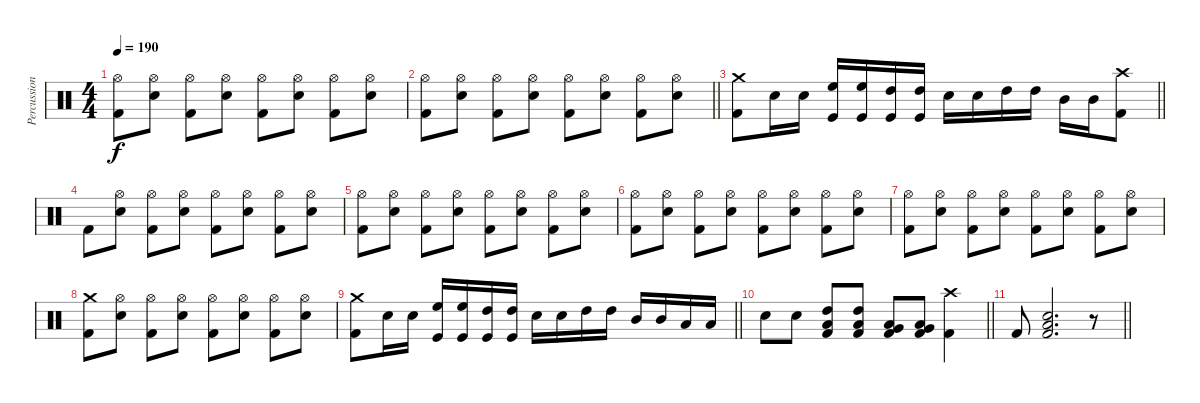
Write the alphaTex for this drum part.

\track ("Percussions" "Percussion") {instrument percussion}
\staff {score}
\articulation defaults
\ts (4 4)
\tempo 190
\clef neutral
\ks c
("Hi-Hat (open)" "Kick (hit) 2").8{dy f} ("Hi-Hat (open)" "Electric Snare (hit)").8 ("Hi-Hat (open)" "Kick (hit) 2").8 ("Hi-Hat (open)" "Electric Snare (hit)").8 ("Hi-Hat (open)" "Kick (hit) 2").8 ("Hi-Hat (open)" "Electric Snare (hit)").8 ("Hi-Hat (open)" "Kick (hit) 2").8 ("Hi-Hat (open)" "Electric Snare (hit)").8 |
\barLineRight lightlight
("Hi-Hat (open)" "Kick (hit) 2").8 ("Hi-Hat (open)" "Electric Snare (hit)").8 ("Hi-Hat (open)" "Kick (hit) 2").8 ("Hi-Hat (open)" "Electric Snare (hit)").8 ("Hi-Hat (open)" "Kick (hit) 2").8 ("Hi-Hat (open)" "Electric Snare (hit)").8 ("Hi-Hat (open)" "Kick (hit) 2").8 ("Hi-Hat (open)" "Electric Snare (hit)").8 |
\barLineRight lightlight
("Crash medium (hit)" "Kick (hit) 2").8 "Electric Snare (hit)".16 "Electric Snare (hit)".16 ("High Floor Tom (hit)" "Kick (hit)").16 ("High Floor Tom (hit)" "Kick (hit)").16 ("High Tom (hit)" "Kick (hit)").16 ("High Tom (hit)" "Kick (hit)").16 "Electric Snare (hit)".16 "Electric Snare (hit)".16 "High Tom (hit)".16 "High Tom (hit)".16 "Mid Tom (hit)".16 "Mid Tom (hit)".16 ("Crash high (hit)" "Kick (hit) 2").8 |
"Kick (hit) 2".8 ("Hi-Hat (open)" "Electric Snare (hit)").8 ("Hi-Hat (open)" "Kick (hit) 2").8 ("Hi-Hat (open)" "Electric Snare (hit)").8 ("Hi-Hat (open)" "Kick (hit) 2").8 ("Hi-Hat (open)" "Electric Snare (hit)").8 ("Hi-Hat (open)" "Kick (hit) 2").8 ("Hi-Hat (open)" "Electric Snare (hit)").8 |
("Hi-Hat (open)" "Kick (hit) 2").8 ("Hi-Hat (open)" "Electric Snare (hit)").8 ("Hi-Hat (open)" "Kick (hit) 2").8 ("Hi-Hat (open)" "Electric Snare (hit)").8 ("Hi-Hat (open)" "Kick (hit) 2").8 ("Hi-Hat (open)" "Electric Snare (hit)").8 ("Hi-Hat (open)" "Kick (hit) 2").8 ("Hi-Hat (open)" "Electric Snare (hit)").8 |
("Hi-Hat (open)" "Kick (hit) 2").8 ("Hi-Hat (open)" "Electric Snare (hit)").8 ("Hi-Hat (open)" "Kick (hit) 2").8 ("Hi-Hat (open)" "Electric Snare (hit)").8 ("Hi-Hat (open)" "Kick (hit) 2").8 ("Hi-Hat (open)" "Electric Snare (hit)").8 ("Hi-Hat (open)" "Kick (hit) 2").8 ("Hi-Hat (open)" "Electric Snare (hit)").8 |
("Hi-Hat (open)" "Kick (hit) 2").8 ("Hi-Hat (open)" "Electric Snare (hit)").8 ("Hi-Hat (open)" "Kick (hit) 2").8 ("Hi-Hat (open)" "Electric Snare (hit)").8 ("Hi-Hat (open)" "Kick (hit) 2").8 ("Hi-Hat (open)" "Electric Snare (hit)").8 ("Hi-Hat (open)" "Kick (hit) 2").8 ("Hi-Hat (open)" "Electric Snare (hit)").8 |
("Crash medium (hit)" "Kick (hit) 2").8 ("Hi-Hat (open)" "Electric Snare (hit)").8 ("Hi-Hat (open)" "Kick (hit) 2").8 ("Hi-Hat (open)" "Electric Snare (hit)").8 ("Hi-Hat (open)" "Kick (hit) 2").8 ("Hi-Hat (open)" "Electric Snare (hit)").8 ("Hi-Hat (open)" "Kick (hit) 2").8 ("Hi-Hat (open)" "Electric Snare (hit)").8 |
\barLineRight lightlight
("Crash medium (hit)" "Kick (hit) 2").8 "Electric Snare (hit)".16 "Electric Snare (hit)".16 ("High Floor Tom (hit)" "Kick (hit)").16 ("High Floor Tom (hit)" "Kick (hit)").16 ("High Tom (hit)" "Kick (hit)").16 ("High Tom (hit)" "Kick (hit)").16 "Electric Snare (hit)".16 "Electric Snare (hit)".16 "High Tom (hit)".16 "High Tom (hit)".16 "Mid Tom (hit)".16 "Mid Tom (hit)".16 "Low Tom (hit)".16 "Low Tom (hit)".16 |
\barLineRight lightlight "Electric Snare (hit)".8 "Electric Snare (hit)".8
("High Tom (hit)" "Low Tom (hit)" "Kick (hit) 2").8 ("High Tom (hit)" "Low Tom (hit)" "Kick (hit) 2").8 ("Very Low Tom (hit)" "Low Tom (hit)" "Kick (hit) 2").8 ("Low Tom (hit)" "Very Low Tom (hit)" "Kick (hit) 2").8 ("Crash high (hit)" "Kick (hit) 2").4 |
\barLineRight lightlight "Kick (hit) 2".8
("Low Floor Tom (hit)" "Electric Snare (hit)" "Kick (hit) 2").2{d} r.8
